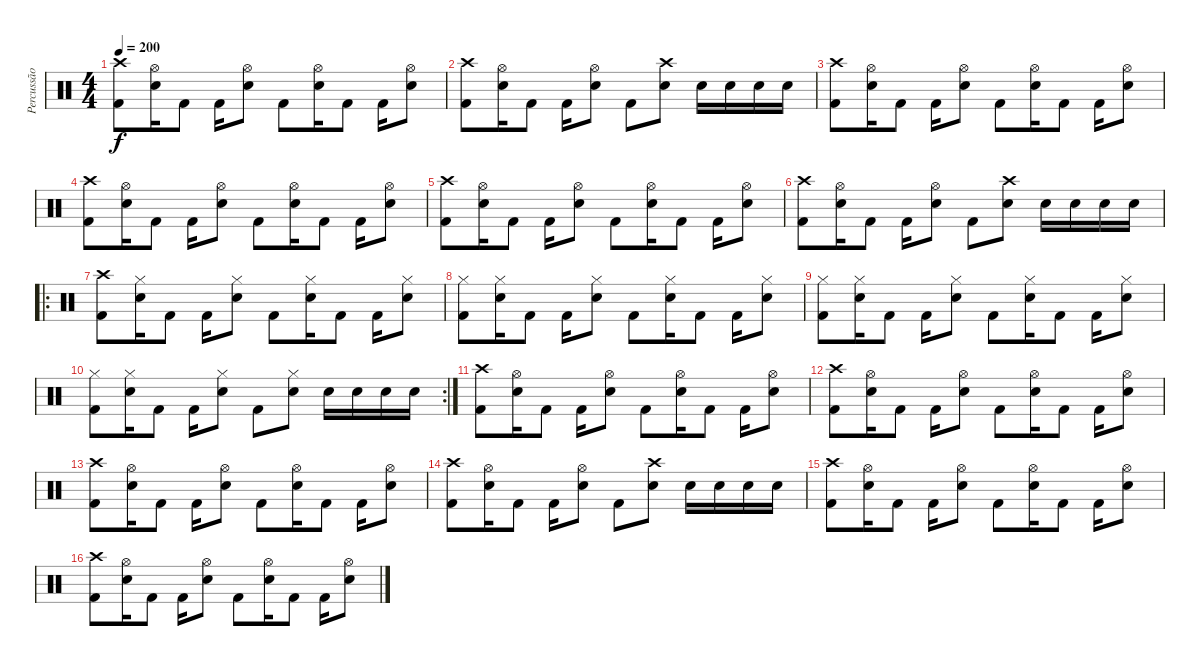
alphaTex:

\track ("Percussão" "Percussão") {instrument percussion}
\staff {score}
\articulation defaults
\ts (4 4)
\tempo 200
\clef neutral
\ks c
("Crash high (hit)" "Kick (hit) 2").8{dy f} ("Hi-Hat (open)" "Snare (hit) 2").16 "Kick (hit) 2".8 "Kick (hit) 2".16 ("Hi-Hat (open)" "Snare (hit) 2").8 "Kick (hit) 2".8 ("Hi-Hat (open)" "Snare (hit) 2").16 "Kick (hit) 2".8 "Kick (hit) 2".16 ("Hi-Hat (open)" "Snare (hit) 2").8 |
("Crash high (hit)" "Kick (hit) 2").8 ("Hi-Hat (open)" "Snare (hit) 2").16 "Kick (hit) 2".8 "Kick (hit) 2".16 ("Hi-Hat (open)" "Snare (hit) 2").8 "Kick (hit) 2".8 ("Crash high (hit)" "Snare (hit) 2").8 "Snare (hit) 2".16 "Snare (hit) 2".16 "Snare (hit) 2".16 "Snare (hit) 2".16 |
("Crash high (hit)" "Kick (hit) 2").8 ("Hi-Hat (open)" "Snare (hit) 2").16 "Kick (hit) 2".8 "Kick (hit) 2".16 ("Hi-Hat (open)" "Snare (hit) 2").8 "Kick (hit) 2".8 ("Hi-Hat (open)" "Snare (hit) 2").16 "Kick (hit) 2".8 "Kick (hit) 2".16 ("Hi-Hat (open)" "Snare (hit) 2").8 |
("Crash high (hit)" "Kick (hit) 2").8 ("Hi-Hat (open)" "Snare (hit) 2").16 "Kick (hit) 2".8 "Kick (hit) 2".16 ("Hi-Hat (open)" "Snare (hit) 2").8 "Kick (hit) 2".8 ("Hi-Hat (open)" "Snare (hit) 2").16 "Kick (hit) 2".8 "Kick (hit) 2".16 ("Hi-Hat (open)" "Snare (hit) 2").8 |
("Crash high (hit)" "Kick (hit) 2").8 ("Hi-Hat (open)" "Snare (hit) 2").16 "Kick (hit) 2".8 "Kick (hit) 2".16 ("Hi-Hat (open)" "Snare (hit) 2").8 "Kick (hit) 2".8 ("Hi-Hat (open)" "Snare (hit) 2").16 "Kick (hit) 2".8 "Kick (hit) 2".16 ("Hi-Hat (open)" "Snare (hit) 2").8 |
("Crash high (hit)" "Kick (hit) 2").8 ("Hi-Hat (open)" "Snare (hit) 2").16 "Kick (hit) 2".8 "Kick (hit) 2".16 ("Hi-Hat (open)" "Snare (hit) 2").8 "Kick (hit) 2".8 ("Crash high (hit)" "Snare (hit) 2").8 "Snare (hit) 2".16 "Snare (hit) 2".16 "Snare (hit) 2".16 "Snare (hit) 2".16 |
\ro
("Crash high (hit)" "Kick (hit) 2").8 ("Hi-Hat (closed)" "Snare (hit) 2").16 "Kick (hit) 2".8 "Kick (hit) 2".16 ("Hi-Hat (closed)" "Snare (hit) 2").8 "Kick (hit) 2".8 ("Hi-Hat (closed)" "Snare (hit) 2").16 "Kick (hit) 2".8 "Kick (hit) 2".16 ("Hi-Hat (closed)" "Snare (hit) 2").8 |
("Hi-Hat (closed)" "Kick (hit) 2").8 ("Hi-Hat (closed)" "Snare (hit) 2").16 "Kick (hit) 2".8 "Kick (hit) 2".16 ("Hi-Hat (closed)" "Snare (hit) 2").8 "Kick (hit) 2".8 ("Hi-Hat (closed)" "Snare (hit) 2").16 "Kick (hit) 2".8 "Kick (hit) 2".16 ("Hi-Hat (closed)" "Snare (hit) 2").8 |
("Hi-Hat (closed)" "Kick (hit) 2").8 ("Hi-Hat (closed)" "Snare (hit) 2").16 "Kick (hit) 2".8 "Kick (hit) 2".16 ("Hi-Hat (closed)" "Snare (hit) 2").8 "Kick (hit) 2".8 ("Hi-Hat (closed)" "Snare (hit) 2").16 "Kick (hit) 2".8 "Kick (hit) 2".16 ("Hi-Hat (closed)" "Snare (hit) 2").8 |
\rc 2
("Hi-Hat (closed)" "Kick (hit) 2").8 ("Hi-Hat (closed)" "Snare (hit) 2").16 "Kick (hit) 2".8 "Kick (hit) 2".16 ("Hi-Hat (closed)" "Snare (hit) 2").8 "Kick (hit) 2".8 ("Hi-Hat (closed)" "Snare (hit) 2").8 "Snare (hit) 2".16 "Snare (hit) 2".16 "Snare (hit) 2".16 "Snare (hit) 2".16 |
("Crash high (hit)" "Kick (hit) 2").8 ("Hi-Hat (open)" "Snare (hit) 2").16 "Kick (hit) 2".8 "Kick (hit) 2".16 ("Hi-Hat (open)" "Snare (hit) 2").8 "Kick (hit) 2".8 ("Hi-Hat (open)" "Snare (hit) 2").16 "Kick (hit) 2".8 "Kick (hit) 2".16 ("Hi-Hat (open)" "Snare (hit) 2").8 |
("Crash high (hit)" "Kick (hit) 2").8 ("Hi-Hat (open)" "Snare (hit) 2").16 "Kick (hit) 2".8 "Kick (hit) 2".16 ("Hi-Hat (open)" "Snare (hit) 2").8 "Kick (hit) 2".8 ("Hi-Hat (open)" "Snare (hit) 2").16 "Kick (hit) 2".8 "Kick (hit) 2".16 ("Hi-Hat (open)" "Snare (hit) 2").8 |
("Crash high (hit)" "Kick (hit) 2").8 ("Hi-Hat (open)" "Snare (hit) 2").16 "Kick (hit) 2".8 "Kick (hit) 2".16 ("Hi-Hat (open)" "Snare (hit) 2").8 "Kick (hit) 2".8 ("Hi-Hat (open)" "Snare (hit) 2").16 "Kick (hit) 2".8 "Kick (hit) 2".16 ("Hi-Hat (open)" "Snare (hit) 2").8 |
("Crash high (hit)" "Kick (hit) 2").8 ("Hi-Hat (open)" "Snare (hit) 2").16 "Kick (hit) 2".8 "Kick (hit) 2".16 ("Hi-Hat (open)" "Snare (hit) 2").8 "Kick (hit) 2".8 ("Crash high (hit)" "Snare (hit) 2").8 "Snare (hit) 2".16 "Snare (hit) 2".16 "Snare (hit) 2".16 "Snare (hit) 2".16 |
("Crash high (hit)" "Kick (hit) 2").8 ("Hi-Hat (open)" "Snare (hit) 2").16 "Kick (hit) 2".8 "Kick (hit) 2".16 ("Hi-Hat (open)" "Snare (hit) 2").8 "Kick (hit) 2".8 ("Hi-Hat (open)" "Snare (hit) 2").16 "Kick (hit) 2".8 "Kick (hit) 2".16 ("Hi-Hat (open)" "Snare (hit) 2").8 |
("Crash high (hit)" "Kick (hit) 2").8 ("Hi-Hat (open)" "Snare (hit) 2").16 "Kick (hit) 2".8 "Kick (hit) 2".16 ("Hi-Hat (open)" "Snare (hit) 2").8 "Kick (hit) 2".8 ("Hi-Hat (open)" "Snare (hit) 2").16 "Kick (hit) 2".8 "Kick (hit) 2".16 ("Hi-Hat (open)" "Snare (hit) 2").8
